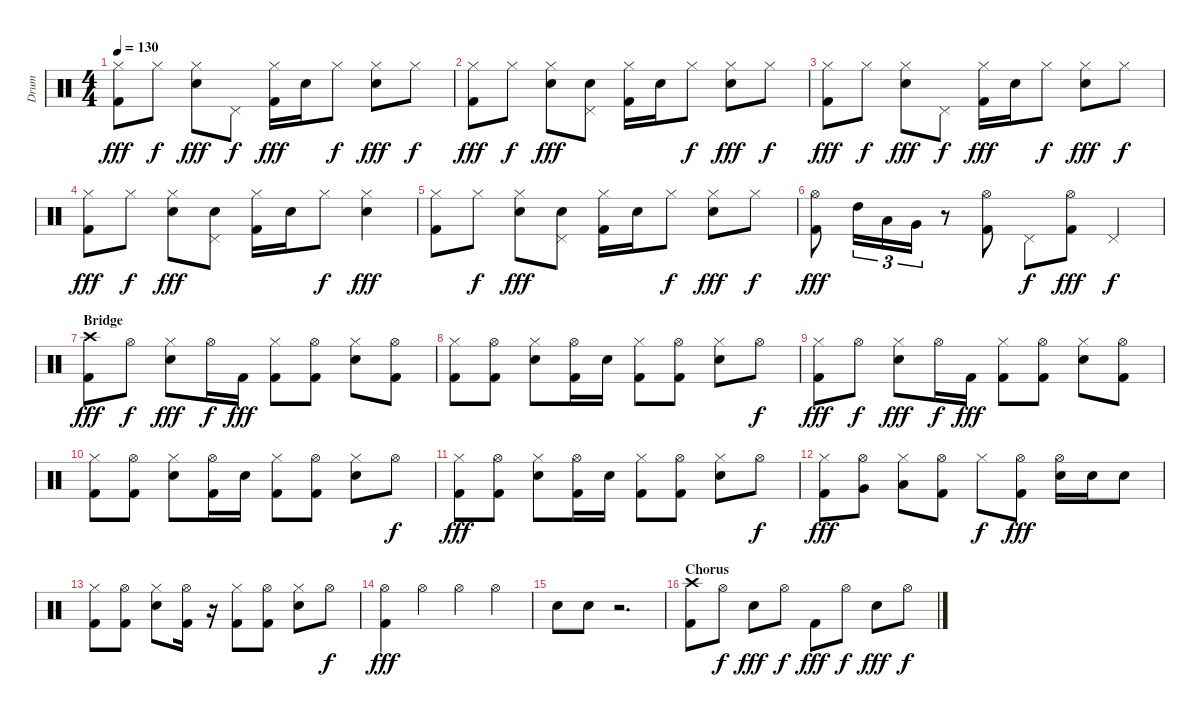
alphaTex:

\track ("Drum" "Drum") {instrument percussion}
\staff {score}
\articulation defaults
\ts (4 4)
\tempo 130
\clef neutral
\ks c
("Hi-Hat (closed)" "Kick (hit) 2").8{dy fff} "Hi-Hat (closed)".8{dy f} ("Hi-Hat (closed)" "Electric Snare (hit)").8{dy fff} "Pedal Hi-Hat (hit)".8{dy f} ("Hi-Hat (closed)" "Kick (hit) 2").16{dy fff} "Electric Snare (hit)".16 "Hi-Hat (closed)".8{dy f} ("Hi-Hat (closed)" "Electric Snare (hit)").8{dy fff} "Hi-Hat (closed)".8{dy f} |
("Hi-Hat (closed)" "Kick (hit) 2").8{dy fff} "Hi-Hat (closed)".8{dy f} ("Hi-Hat (closed)" "Electric Snare (hit)").8{dy fff} ("Pedal Hi-Hat (hit)" "Electric Snare (hit)").8 ("Hi-Hat (closed)" "Kick (hit) 2").16 "Electric Snare (hit)".16 "Hi-Hat (closed)".8{dy f} ("Hi-Hat (closed)" "Electric Snare (hit)").8{dy fff} "Hi-Hat (closed)".8{dy f} |
("Hi-Hat (closed)" "Kick (hit) 2").8{dy fff} "Hi-Hat (closed)".8{dy f} ("Hi-Hat (closed)" "Electric Snare (hit)").8{dy fff} "Pedal Hi-Hat (hit)".8{dy f} ("Hi-Hat (closed)" "Kick (hit) 2").16{dy fff} "Electric Snare (hit)".16 "Hi-Hat (closed)".8{dy f} ("Hi-Hat (closed)" "Electric Snare (hit)").8{dy fff} "Hi-Hat (closed)".8{dy f} |
("Hi-Hat (closed)" "Kick (hit) 2").8{dy fff} "Hi-Hat (closed)".8{dy f} ("Hi-Hat (closed)" "Electric Snare (hit)").8{dy fff} ("Pedal Hi-Hat (hit)" "Electric Snare (hit)").8 ("Hi-Hat (closed)" "Kick (hit) 2").16 "Electric Snare (hit)".16 "Hi-Hat (closed)".8{dy f} ("Hi-Hat (closed)" "Electric Snare (hit)").4{dy fff} |
("Hi-Hat (closed)" "Kick (hit) 2").8 "Hi-Hat (closed)".8{dy f} ("Hi-Hat (closed)" "Electric Snare (hit)").8{dy fff} ("Pedal Hi-Hat (hit)" "Electric Snare (hit)").8 ("Hi-Hat (closed)" "Kick (hit) 2").16 "Electric Snare (hit)".16 "Hi-Hat (closed)".8{dy f} ("Hi-Hat (closed)" "Electric Snare (hit)").8{dy fff} "Hi-Hat (closed)".8{dy f} |
("Hi-Hat (open)" "Kick (hit) 2").8{dy fff} "High Tom (hit)".16{tu (3 2)} "Low Tom (hit)".16{tu (3 2)} "Very Low Tom (hit)".16{tu (3 2)} r.8 ("Hi-Hat (open)" "Kick (hit) 2").8 "Pedal Hi-Hat (hit)".8{dy f} ("Hi-Hat (open)" "Kick (hit) 2").8{dy fff} "Pedal Hi-Hat (hit)".4{dy f} |
\section ("" "Bridge")
("Crash high (hit)" "Kick (hit) 2").8{dy fff} "Hi-Hat (open)".8{dy f} ("Hi-Hat (closed)" "Electric Snare (hit)").8{dy fff} "Hi-Hat (open)".16{dy f} "Kick (hit) 2".16{dy fff} ("Hi-Hat (closed)" "Kick (hit) 2").8 ("Hi-Hat (open)" "Kick (hit) 2").8 ("Hi-Hat (closed)" "Electric Snare (hit)").8 ("Hi-Hat (open)" "Kick (hit) 2").8 |
("Hi-Hat (closed)" "Kick (hit) 2").8 ("Hi-Hat (open)" "Kick (hit) 2").8 ("Hi-Hat (closed)" "Electric Snare (hit)").8 ("Hi-Hat (open)" "Kick (hit) 2").16 "Electric Snare (hit)".16 ("Hi-Hat (closed)" "Kick (hit) 2").8 ("Hi-Hat (open)" "Kick (hit) 2").8 ("Hi-Hat (closed)" "Electric Snare (hit)").8 "Hi-Hat (open)".8{dy f} |
("Hi-Hat (closed)" "Kick (hit) 2").8{dy fff} "Hi-Hat (open)".8{dy f} ("Hi-Hat (closed)" "Electric Snare (hit)").8{dy fff} "Hi-Hat (open)".16{dy f} "Kick (hit) 2".16{dy fff} ("Hi-Hat (closed)" "Kick (hit) 2").8 ("Hi-Hat (open)" "Kick (hit) 2").8 ("Hi-Hat (closed)" "Electric Snare (hit)").8 ("Hi-Hat (open)" "Kick (hit) 2").8 |
("Hi-Hat (closed)" "Kick (hit) 2").8 ("Hi-Hat (open)" "Kick (hit) 2").8 ("Hi-Hat (closed)" "Electric Snare (hit)").8 ("Hi-Hat (open)" "Kick (hit) 2").16 "Electric Snare (hit)".16 ("Hi-Hat (closed)" "Kick (hit) 2").8 ("Hi-Hat (open)" "Kick (hit) 2").8 ("Hi-Hat (closed)" "Electric Snare (hit)").8 "Hi-Hat (open)".8{dy f} |
("Hi-Hat (closed)" "Kick (hit) 2").8{dy fff} ("Hi-Hat (open)" "Kick (hit) 2").8 ("Hi-Hat (closed)" "Electric Snare (hit)").8 ("Hi-Hat (open)" "Kick (hit) 2").16 "Electric Snare (hit)".16 ("Hi-Hat (closed)" "Kick (hit) 2").8 ("Hi-Hat (open)" "Kick (hit) 2").8 ("Hi-Hat (closed)" "Electric Snare (hit)").8 "Hi-Hat (open)".8{dy f} |
("Hi-Hat (closed)" "Kick (hit) 2").8{dy fff} ("Hi-Hat (open)" "Very Low Tom (hit)").8 ("Hi-Hat (closed)" "Low Tom (hit)").8 ("Hi-Hat (open)" "Kick (hit) 2").8 "Hi-Hat (closed)".8{dy f} ("Hi-Hat (open)" "Kick (hit) 2").8{dy fff} ("Hi-Hat (open)" "Electric Snare (hit)").16 "Electric Snare (hit)".16 "Electric Snare (hit)".8 |
("Hi-Hat (closed)" "Kick (hit) 2").8 ("Hi-Hat (open)" "Kick (hit) 2").8 ("Hi-Hat (closed)" "Electric Snare (hit)").8 ("Hi-Hat (open)" "Kick (hit) 2").16 r.16 ("Hi-Hat (closed)" "Kick (hit) 2").8 ("Hi-Hat (open)" "Kick (hit) 2").8 ("Hi-Hat (closed)" "Electric Snare (hit)").8 "Hi-Hat (open)".8{dy f} |
("Hi-Hat (open)" "Kick (hit) 2").4{dy fff} "Hi-Hat (open)".4 "Hi-Hat (open)".4 "Hi-Hat (open)".4 |
"Electric Snare (hit)".8 "Electric Snare (hit)".8 r.2{d} |
\section ("" "Chorus")
("Crash high (hit)" "Kick (hit) 2").8 "Hi-Hat (open)".8{dy f} "Electric Snare (hit)".8{dy fff} "Hi-Hat (open)".8{dy f} "Kick (hit) 2".8{dy fff} "Hi-Hat (open)".8{dy f} "Electric Snare (hit)".8{dy fff} "Hi-Hat (open)".8{dy f}
